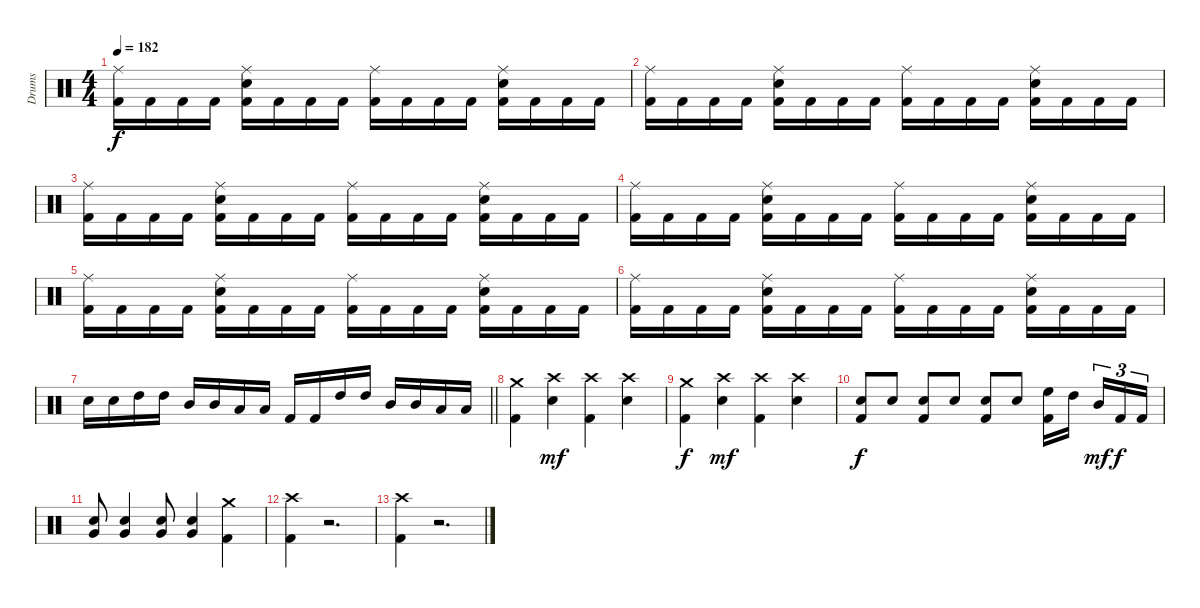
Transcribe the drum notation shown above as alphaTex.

\track ("Drums" "Drums") {instrument percussion}
\staff {score}
\articulation defaults
\ts (4 4)
\tempo 182
\clef neutral
\ks c
("Ride (middle)" "Kick (hit) 2").16{dy f} "Kick (hit) 2".16 "Kick (hit) 2".16 "Kick (hit) 2".16 ("Ride (middle)" "Electric Snare (hit)" "Kick (hit) 2").16 "Kick (hit) 2".16 "Kick (hit) 2".16 "Kick (hit) 2".16 ("Ride (middle)" "Kick (hit) 2").16 "Kick (hit) 2".16 "Kick (hit) 2".16 "Kick (hit) 2".16 ("Ride (middle)" "Electric Snare (hit)" "Kick (hit) 2").16 "Kick (hit) 2".16 "Kick (hit) 2".16 "Kick (hit) 2".16 |
("Ride (middle)" "Kick (hit) 2").16 "Kick (hit) 2".16 "Kick (hit) 2".16 "Kick (hit) 2".16 ("Ride (middle)" "Electric Snare (hit)" "Kick (hit) 2").16 "Kick (hit) 2".16 "Kick (hit) 2".16 "Kick (hit) 2".16 ("Ride (middle)" "Kick (hit) 2").16 "Kick (hit) 2".16 "Kick (hit) 2".16 "Kick (hit) 2".16 ("Ride (middle)" "Electric Snare (hit)" "Kick (hit) 2").16 "Kick (hit) 2".16 "Kick (hit) 2".16 "Kick (hit) 2".16 |
("Ride (middle)" "Kick (hit) 2").16 "Kick (hit) 2".16 "Kick (hit) 2".16 "Kick (hit) 2".16 ("Ride (middle)" "Electric Snare (hit)" "Kick (hit) 2").16 "Kick (hit) 2".16 "Kick (hit) 2".16 "Kick (hit) 2".16 ("Ride (middle)" "Kick (hit) 2").16 "Kick (hit) 2".16 "Kick (hit) 2".16 "Kick (hit) 2".16 ("Ride (middle)" "Electric Snare (hit)" "Kick (hit) 2").16 "Kick (hit) 2".16 "Kick (hit) 2".16 "Kick (hit) 2".16 |
("Ride (middle)" "Kick (hit) 2").16 "Kick (hit) 2".16 "Kick (hit) 2".16 "Kick (hit) 2".16 ("Ride (middle)" "Electric Snare (hit)" "Kick (hit) 2").16 "Kick (hit) 2".16 "Kick (hit) 2".16 "Kick (hit) 2".16 ("Ride (middle)" "Kick (hit) 2").16 "Kick (hit) 2".16 "Kick (hit) 2".16 "Kick (hit) 2".16 ("Ride (middle)" "Electric Snare (hit)" "Kick (hit) 2").16 "Kick (hit) 2".16 "Kick (hit) 2".16 "Kick (hit) 2".16 |
("Ride (middle)" "Kick (hit) 2").16 "Kick (hit) 2".16 "Kick (hit) 2".16 "Kick (hit) 2".16 ("Ride (middle)" "Electric Snare (hit)" "Kick (hit) 2").16 "Kick (hit) 2".16 "Kick (hit) 2".16 "Kick (hit) 2".16 ("Ride (middle)" "Kick (hit) 2").16 "Kick (hit) 2".16 "Kick (hit) 2".16 "Kick (hit) 2".16 ("Ride (middle)" "Electric Snare (hit)" "Kick (hit) 2").16 "Kick (hit) 2".16 "Kick (hit) 2".16 "Kick (hit) 2".16 |
("Ride (middle)" "Kick (hit) 2").16 "Kick (hit) 2".16 "Kick (hit) 2".16 "Kick (hit) 2".16 ("Ride (middle)" "Electric Snare (hit)" "Kick (hit) 2").16 "Kick (hit) 2".16 "Kick (hit) 2".16 "Kick (hit) 2".16 ("Ride (middle)" "Kick (hit) 2").16 "Kick (hit) 2".16 "Kick (hit) 2".16 "Kick (hit) 2".16 ("Ride (middle)" "Electric Snare (hit)" "Kick (hit) 2").16 "Kick (hit) 2".16 "Kick (hit) 2".16 "Kick (hit) 2".16 |
\barLineRight lightlight "Electric Snare (hit)".16 "Electric Snare (hit)".16 "High Tom (hit)".16 "High Tom (hit)".16 "Mid Tom (hit)".16 "Mid Tom (hit)".16 "Low Tom (hit)".16 "Low Tom (hit)".16 "Kick (hit) 2".16 "Kick (hit) 2".16 "High Tom (hit)".16 "High Tom (hit)".16 "Mid Tom (hit)".16 "Mid Tom (hit)".16 "Low Tom (hit)".16 "Low Tom (hit)".16
|
("Crash medium (hit)" "Kick (hit) 2").4 ("Crash high (hit)" "Electric Snare (hit)").4{dy mf} ("Crash high (hit)" "Kick (hit) 2").4 ("Crash high (hit)" "Electric Snare (hit)").4 |
("Crash medium (hit)" "Kick (hit) 2").4{dy f} ("Crash high (hit)" "Electric Snare (hit)").4{dy mf} ("Crash high (hit)" "Kick (hit) 2").4 ("Crash high (hit)" "Electric Snare (hit)").4 |
("Electric Snare (hit)" "Kick (hit) 2").8{dy f} "Electric Snare (hit)".8 ("Electric Snare (hit)" "Kick (hit) 2").8 "Electric Snare (hit)".8 ("Electric Snare (hit)" "Kick (hit) 2").8 "Electric Snare (hit)".8 ("High Floor Tom (hit)" "Kick (hit) 2").16 "High Tom (hit)".16 "Mid Tom (hit)".16{tu (3 2) dy mf} "Kick (hit) 2".16{tu (3 2) dy f} "Kick (hit) 2".16{tu (3 2)} |
("Electric Snare (hit)" "Very Low Tom (hit)").8 ("Electric Snare (hit)" "Very Low Tom (hit)").4 ("Electric Snare (hit)" "Very Low Tom (hit)").8 ("Electric Snare (hit)" "Very Low Tom (hit)").4 ("Crash medium (hit)" "Kick (hit) 2").4 |
("Crash high (hit)" "Kick (hit) 2").4 r.2{d} |
("Crash high (hit)" "Kick (hit) 2").4 r.2{d}
